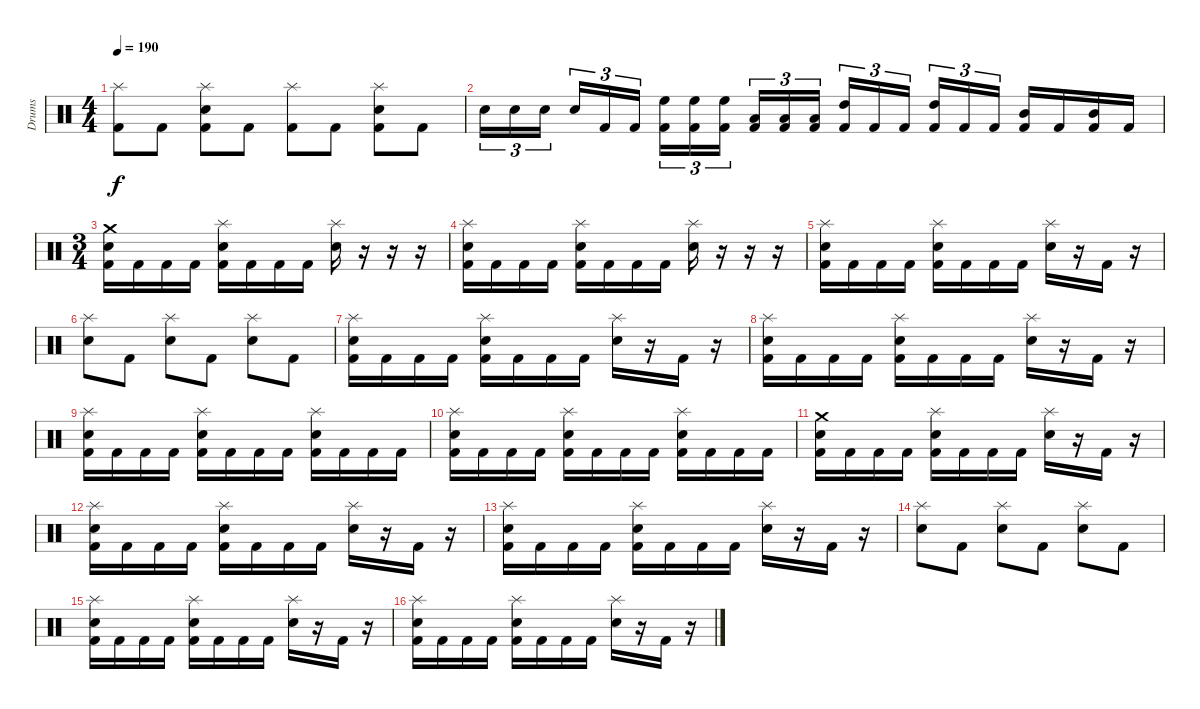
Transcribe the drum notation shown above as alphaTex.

\track ("Drums" "Drums") {instrument percussion}
\staff {score}
\articulation defaults
\ts (4 4)
\tempo 190
\clef neutral
\ks c
("Splash (hit)" "Kick (hit) 2").8{dy f} "Kick (hit) 2".8 ("Splash (hit)" "Snare (hit) 2" "Kick (hit) 2").8 "Kick (hit) 2".8 ("Splash (hit)" "Kick (hit) 2").8 "Kick (hit) 2".8 ("Splash (hit)" "Snare (hit) 2" "Kick (hit) 2").8 "Kick (hit) 2".8 |
"Snare (hit) 2".16{tu (3 2)} "Snare (hit) 2".16{tu (3 2)} "Snare (hit) 2".16{tu (3 2) beam splitsecondary} "Snare (hit) 2".16{tu (3 2)} "Kick (hit) 2".16{tu (3 2)} "Kick (hit) 2".16{tu (3 2)} ("High Floor Tom (hit)" "Kick (hit) 2").16{tu (3 2)} ("High Floor Tom (hit)" "Kick (hit) 2").16{tu (3 2)} ("High Floor Tom (hit)" "Kick (hit) 2").16{tu (3 2) beam splitsecondary} ("Low Tom (hit)" "Kick (hit) 2").16{tu (3 2)} ("Low Tom (hit)" "Kick (hit) 2").16{tu (3 2)} ("Low Tom (hit)" "Kick (hit) 2").16{tu (3 2)} ("High Tom (hit)" "Kick (hit) 2").16{tu (3 2)} "Kick (hit) 2".16{tu (3 2)} "Kick (hit) 2".16{tu (3 2) beam splitsecondary} ("High Tom (hit)" "Kick (hit) 2").16{tu (3 2)} "Kick (hit) 2".16{tu (3 2)} "Kick (hit) 2".16{tu (3 2)} ("Mid Tom (hit)" "Kick (hit) 2").16 "Kick (hit) 2".16 ("Mid Tom (hit)" "Kick (hit) 2").16 "Kick (hit) 2".16 |
\ts (3 4)
("Crash medium (hit)" "Snare (hit) 2" "Kick (hit) 2").16 "Kick (hit) 2".16 "Kick (hit) 2".16 "Kick (hit) 2".16 ("Splash (hit)" "Snare (hit) 2" "Kick (hit) 2").16 "Kick (hit) 2".16 "Kick (hit) 2".16 "Kick (hit) 2".16 ("Splash (hit)" "Snare (hit) 2").16 r.16 r.16 r.16 |
("Splash (hit)" "Snare (hit) 2" "Kick (hit) 2").16 "Kick (hit) 2".16 "Kick (hit) 2".16 "Kick (hit) 2".16 ("Splash (hit)" "Snare (hit) 2" "Kick (hit) 2").16 "Kick (hit) 2".16 "Kick (hit) 2".16 "Kick (hit) 2".16 ("Splash (hit)" "Snare (hit) 2").16 r.16 r.16 r.16 |
("Splash (hit)" "Snare (hit) 2" "Kick (hit) 2").16 "Kick (hit) 2".16 "Kick (hit) 2".16 "Kick (hit) 2".16 ("Splash (hit)" "Snare (hit) 2" "Kick (hit) 2").16 "Kick (hit) 2".16 "Kick (hit) 2".16 "Kick (hit) 2".16 ("Splash (hit)" "Snare (hit) 2").16 r.16 "Kick (hit) 2".16 r.16 |
("Splash (hit)" "Snare (hit) 2").8 "Kick (hit) 2".8 ("Splash (hit)" "Snare (hit) 2").8 "Kick (hit) 2".8 ("Splash (hit)" "Snare (hit) 2").8 "Kick (hit) 2".8 |
("Splash (hit)" "Snare (hit) 2" "Kick (hit) 2").16 "Kick (hit) 2".16 "Kick (hit) 2".16 "Kick (hit) 2".16 ("Splash (hit)" "Snare (hit) 2" "Kick (hit) 2").16 "Kick (hit) 2".16 "Kick (hit) 2".16 "Kick (hit) 2".16 ("Splash (hit)" "Snare (hit) 2").16 r.16 "Kick (hit) 2".16 r.16 |
("Splash (hit)" "Snare (hit) 2" "Kick (hit) 2").16 "Kick (hit) 2".16 "Kick (hit) 2".16 "Kick (hit) 2".16 ("Splash (hit)" "Snare (hit) 2" "Kick (hit) 2").16 "Kick (hit) 2".16 "Kick (hit) 2".16 "Kick (hit) 2".16 ("Splash (hit)" "Snare (hit) 2").16 r.16 "Kick (hit) 2".16 r.16 |
("Splash (hit)" "Snare (hit) 2" "Kick (hit) 2").16 "Kick (hit) 2".16 "Kick (hit) 2".16 "Kick (hit) 2".16 ("Splash (hit)" "Snare (hit) 2" "Kick (hit) 2").16 "Kick (hit) 2".16 "Kick (hit) 2".16 "Kick (hit) 2".16 ("Splash (hit)" "Snare (hit) 2" "Kick (hit) 2").16 "Kick (hit) 2".16 "Kick (hit) 2".16 "Kick (hit) 2".16 |
("Splash (hit)" "Snare (hit) 2" "Kick (hit) 2").16 "Kick (hit) 2".16 "Kick (hit) 2".16 "Kick (hit) 2".16 ("Splash (hit)" "Snare (hit) 2" "Kick (hit) 2").16 "Kick (hit) 2".16 "Kick (hit) 2".16 "Kick (hit) 2".16 ("Splash (hit)" "Snare (hit) 2" "Kick (hit) 2").16 "Kick (hit) 2".16 "Kick (hit) 2".16 "Kick (hit) 2".16 |
("Crash medium (hit)" "Snare (hit) 2" "Kick (hit) 2").16 "Kick (hit) 2".16 "Kick (hit) 2".16 "Kick (hit) 2".16 ("Splash (hit)" "Snare (hit) 2" "Kick (hit) 2").16 "Kick (hit) 2".16 "Kick (hit) 2".16 "Kick (hit) 2".16 ("Splash (hit)" "Snare (hit) 2").16 r.16 "Kick (hit) 2".16 r.16 |
("Splash (hit)" "Snare (hit) 2" "Kick (hit) 2").16 "Kick (hit) 2".16 "Kick (hit) 2".16 "Kick (hit) 2".16 ("Splash (hit)" "Snare (hit) 2" "Kick (hit) 2").16 "Kick (hit) 2".16 "Kick (hit) 2".16 "Kick (hit) 2".16 ("Splash (hit)" "Snare (hit) 2").16 r.16 "Kick (hit) 2".16 r.16 |
("Splash (hit)" "Snare (hit) 2" "Kick (hit) 2").16 "Kick (hit) 2".16 "Kick (hit) 2".16 "Kick (hit) 2".16 ("Splash (hit)" "Snare (hit) 2" "Kick (hit) 2").16 "Kick (hit) 2".16 "Kick (hit) 2".16 "Kick (hit) 2".16 ("Splash (hit)" "Snare (hit) 2").16 r.16 "Kick (hit) 2".16 r.16 |
("Splash (hit)" "Snare (hit) 2").8 "Kick (hit) 2".8 ("Splash (hit)" "Snare (hit) 2").8 "Kick (hit) 2".8 ("Splash (hit)" "Snare (hit) 2").8 "Kick (hit) 2".8 |
("Splash (hit)" "Snare (hit) 2" "Kick (hit) 2").16 "Kick (hit) 2".16 "Kick (hit) 2".16 "Kick (hit) 2".16 ("Splash (hit)" "Snare (hit) 2" "Kick (hit) 2").16 "Kick (hit) 2".16 "Kick (hit) 2".16 "Kick (hit) 2".16 ("Splash (hit)" "Snare (hit) 2").16 r.16 "Kick (hit) 2".16 r.16 |
("Splash (hit)" "Snare (hit) 2" "Kick (hit) 2").16 "Kick (hit) 2".16 "Kick (hit) 2".16 "Kick (hit) 2".16 ("Splash (hit)" "Snare (hit) 2" "Kick (hit) 2").16 "Kick (hit) 2".16 "Kick (hit) 2".16 "Kick (hit) 2".16 ("Splash (hit)" "Snare (hit) 2").16 r.16 "Kick (hit) 2".16 r.16
